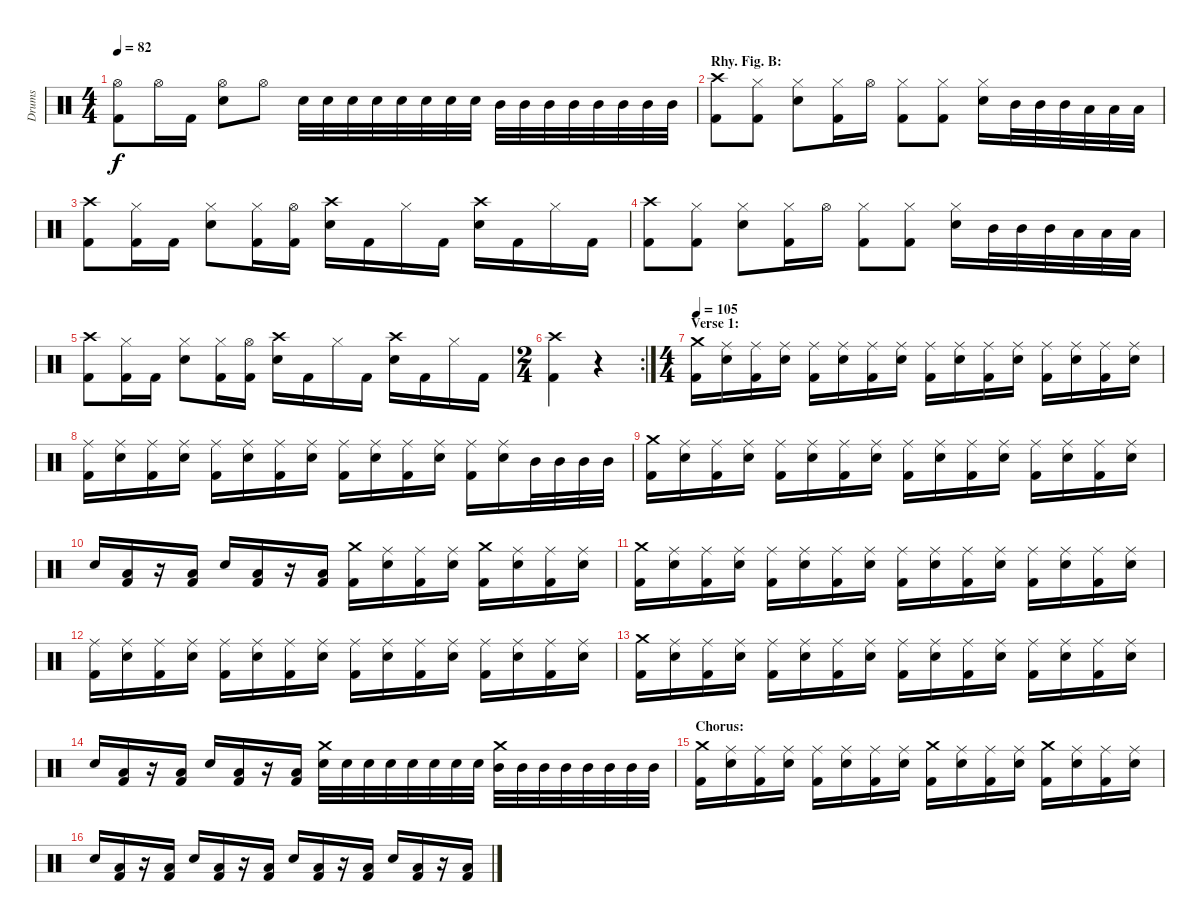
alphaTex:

\track ("Drums" "Drums") {instrument percussion}
\staff {score}
\articulation defaults
\ts (4 4)
\tempo 82
\clef neutral
\ks c
("Hi-Hat (open)" "Kick (hit) 2").8{dy f} "Hi-Hat (open)".16 "Kick (hit) 2".16 ("Hi-Hat (open)" "Electric Snare (hit)").8 "Hi-Hat (open)".8 "Electric Snare (hit)".32 "Electric Snare (hit)".32 "Electric Snare (hit)".32 "Electric Snare (hit)".32 "Electric Snare (hit)".32 "Electric Snare (hit)".32 "Electric Snare (hit)".32 "Electric Snare (hit)".32 "Mid Tom (hit)".32 "Mid Tom (hit)".32 "Mid Tom (hit)".32 "Mid Tom (hit)".32 "Mid Tom (hit)".32 "Mid Tom (hit)".32 "Mid Tom (hit)".32 "Mid Tom (hit)".32 |
\section ("" "Rhy. Fig. B:")
("Crash high (hit)" "Kick (hit) 2").8 ("Hi-Hat (closed)" "Kick (hit) 2").8 ("Hi-Hat (closed)" "Electric Snare (hit)").8 ("Hi-Hat (closed)" "Kick (hit) 2").16 "Hi-Hat (open)".16 ("Hi-Hat (closed)" "Kick (hit) 2").8 ("Hi-Hat (closed)" "Kick (hit) 2").8 ("Hi-Hat (closed)" "Electric Snare (hit)").16 "Mid Tom (hit)".32 "Mid Tom (hit)".32 "Mid Tom (hit)".32 "Low Tom (hit)".32 "Low Tom (hit)".32 "Low Tom (hit)".32 |
("Crash high (hit)" "Kick (hit) 2").8 ("Hi-Hat (closed)" "Kick (hit) 2").16 "Kick (hit) 2".16 ("Hi-Hat (closed)" "Electric Snare (hit)").8 ("Hi-Hat (closed)" "Kick (hit) 2").16 ("Hi-Hat (open)" "Kick (hit) 2").16 ("Crash high (hit)" "Electric Snare (hit)").16 "Kick (hit) 2".16 "Hi-Hat (closed)".16 "Kick (hit) 2".16 ("Crash high (hit)" "Electric Snare (hit)").16 "Kick (hit) 2".16 "Hi-Hat (closed)".16 "Kick (hit) 2".16 |
("Crash high (hit)" "Kick (hit) 2").8 ("Hi-Hat (closed)" "Kick (hit) 2").8 ("Hi-Hat (closed)" "Electric Snare (hit)").8 ("Hi-Hat (closed)" "Kick (hit) 2").16 "Hi-Hat (open)".16 ("Hi-Hat (closed)" "Kick (hit) 2").8 ("Hi-Hat (closed)" "Kick (hit) 2").8 ("Hi-Hat (closed)" "Electric Snare (hit)").16 "Mid Tom (hit)".32 "Mid Tom (hit)".32 "Mid Tom (hit)".32 "Low Tom (hit)".32 "Low Tom (hit)".32 "Low Tom (hit)".32 |
("Crash high (hit)" "Kick (hit) 2").8 ("Hi-Hat (closed)" "Kick (hit) 2").16 "Kick (hit) 2".16 ("Hi-Hat (closed)" "Electric Snare (hit)").8 ("Hi-Hat (closed)" "Kick (hit) 2").16 ("Hi-Hat (open)" "Kick (hit) 2").16 ("Crash high (hit)" "Electric Snare (hit)").16 "Kick (hit) 2".16 "Hi-Hat (closed)".16 "Kick (hit) 2".16 ("Crash high (hit)" "Electric Snare (hit)").16 "Kick (hit) 2".16 "Hi-Hat (closed)".16 "Kick (hit) 2".16 |
\rc 2
\ts (2 4)
("Crash high (hit)" "Kick (hit) 2").4 r.4 |
\ts (4 4)
\section ("" "Verse 1:")
\tempo 105
("Crash medium (hit)" "Kick (hit) 2").16 ("Ride (middle)" "Electric Snare (hit)").16 ("Ride (middle)" "Kick (hit) 2").16 ("Ride (middle)" "Electric Snare (hit)").16 ("Ride (middle)" "Kick (hit) 2").16 ("Ride (middle)" "Electric Snare (hit)").16 ("Ride (middle)" "Kick (hit) 2").16 ("Ride (middle)" "Electric Snare (hit)").16 ("Ride (middle)" "Kick (hit) 2").16 ("Ride (middle)" "Electric Snare (hit)").16 ("Ride (middle)" "Kick (hit) 2").16 ("Ride (middle)" "Electric Snare (hit)").16 ("Ride (middle)" "Kick (hit) 2").16 ("Ride (middle)" "Electric Snare (hit)").16 ("Ride (middle)" "Kick (hit) 2").16 ("Ride (middle)" "Electric Snare (hit)").16 |
("Ride (middle)" "Kick (hit) 2").16 ("Ride (middle)" "Electric Snare (hit)").16 ("Ride (middle)" "Kick (hit) 2").16 ("Ride (middle)" "Electric Snare (hit)").16 ("Ride (middle)" "Kick (hit) 2").16 ("Ride (middle)" "Electric Snare (hit)").16 ("Ride (middle)" "Kick (hit) 2").16 ("Ride (middle)" "Electric Snare (hit)").16 ("Ride (middle)" "Kick (hit) 2").16 ("Ride (middle)" "Electric Snare (hit)").16 ("Ride (middle)" "Kick (hit) 2").16 ("Ride (middle)" "Electric Snare (hit)").16 ("Ride (middle)" "Kick (hit) 2").16 ("Ride (middle)" "Electric Snare (hit)").16 "Mid Tom (hit)".32 "Mid Tom (hit)".32 "Mid Tom (hit)".32 "Mid Tom (hit)".32 |
("Crash medium (hit)" "Kick (hit) 2").16 ("Ride (middle)" "Electric Snare (hit)").16 ("Ride (middle)" "Kick (hit) 2").16 ("Ride (middle)" "Electric Snare (hit)").16 ("Ride (middle)" "Kick (hit) 2").16 ("Ride (middle)" "Electric Snare (hit)").16 ("Ride (middle)" "Kick (hit) 2").16 ("Ride (middle)" "Electric Snare (hit)").16 ("Ride (middle)" "Kick (hit) 2").16 ("Ride (middle)" "Electric Snare (hit)").16 ("Ride (middle)" "Kick (hit) 2").16 ("Ride (middle)" "Electric Snare (hit)").16 ("Ride (middle)" "Kick (hit) 2").16 ("Ride (middle)" "Electric Snare (hit)").16 ("Ride (middle)" "Kick (hit) 2").16 ("Ride (middle)" "Electric Snare (hit)").16 |
"Electric Snare (hit)".16 ("Low Floor Tom (hit)" "Kick (hit) 2").16 r.16 ("Low Floor Tom (hit)" "Kick (hit) 2").16 "Electric Snare (hit)".16 ("Low Floor Tom (hit)" "Kick (hit) 2").16 r.16 ("Low Floor Tom (hit)" "Kick (hit) 2").16 ("Crash medium (hit)" "Kick (hit) 2").16 ("Ride (middle)" "Electric Snare (hit)").16 ("Ride (middle)" "Kick (hit) 2").16 ("Ride (middle)" "Electric Snare (hit)").16 ("Crash medium (hit)" "Kick (hit) 2").16 ("Ride (middle)" "Electric Snare (hit)").16 ("Ride (middle)" "Kick (hit) 2").16 ("Ride (middle)" "Electric Snare (hit)").16 |
("Crash medium (hit)" "Kick (hit) 2").16 ("Ride (middle)" "Electric Snare (hit)").16 ("Ride (middle)" "Kick (hit) 2").16 ("Ride (middle)" "Electric Snare (hit)").16 ("Ride (middle)" "Kick (hit) 2").16 ("Ride (middle)" "Electric Snare (hit)").16 ("Ride (middle)" "Kick (hit) 2").16 ("Ride (middle)" "Electric Snare (hit)").16 ("Ride (middle)" "Kick (hit) 2").16 ("Ride (middle)" "Electric Snare (hit)").16 ("Ride (middle)" "Kick (hit) 2").16 ("Ride (middle)" "Electric Snare (hit)").16 ("Ride (middle)" "Kick (hit) 2").16 ("Ride (middle)" "Electric Snare (hit)").16 ("Ride (middle)" "Kick (hit) 2").16 ("Ride (middle)" "Electric Snare (hit)").16 |
("Ride (middle)" "Kick (hit) 2").16 ("Ride (middle)" "Electric Snare (hit)").16 ("Ride (middle)" "Kick (hit) 2").16 ("Ride (middle)" "Electric Snare (hit)").16 ("Ride (middle)" "Kick (hit) 2").16 ("Ride (middle)" "Electric Snare (hit)").16 ("Ride (middle)" "Kick (hit) 2").16 ("Ride (middle)" "Electric Snare (hit)").16 ("Ride (middle)" "Kick (hit) 2").16 ("Ride (middle)" "Electric Snare (hit)").16 ("Ride (middle)" "Kick (hit) 2").16 ("Ride (middle)" "Electric Snare (hit)").16 ("Ride (middle)" "Kick (hit) 2").16 ("Ride (middle)" "Electric Snare (hit)").16 ("Ride (middle)" "Kick (hit) 2").16 ("Ride (middle)" "Electric Snare (hit)").16 |
("Crash medium (hit)" "Kick (hit) 2").16 ("Ride (middle)" "Electric Snare (hit)").16 ("Ride (middle)" "Kick (hit) 2").16 ("Ride (middle)" "Electric Snare (hit)").16 ("Ride (middle)" "Kick (hit) 2").16 ("Ride (middle)" "Electric Snare (hit)").16 ("Ride (middle)" "Kick (hit) 2").16 ("Ride (middle)" "Electric Snare (hit)").16 ("Ride (middle)" "Kick (hit) 2").16 ("Ride (middle)" "Electric Snare (hit)").16 ("Ride (middle)" "Kick (hit) 2").16 ("Ride (middle)" "Electric Snare (hit)").16 ("Ride (middle)" "Kick (hit) 2").16 ("Ride (middle)" "Electric Snare (hit)").16 ("Ride (middle)" "Kick (hit) 2").16 ("Ride (middle)" "Electric Snare (hit)").16 |
"Electric Snare (hit)".16 ("Low Floor Tom (hit)" "Kick (hit) 2").16 r.16 ("Low Floor Tom (hit)" "Kick (hit) 2").16 "Electric Snare (hit)".16 ("Low Floor Tom (hit)" "Kick (hit) 2").16 r.16 ("Low Floor Tom (hit)" "Kick (hit) 2").16 ("Crash medium (hit)" "Electric Snare (hit)").32 "Electric Snare (hit)".32 "Electric Snare (hit)".32 "Electric Snare (hit)".32 "Electric Snare (hit)".32 "Electric Snare (hit)".32 "Electric Snare (hit)".32 "Electric Snare (hit)".32 ("Crash medium (hit)" "Mid Tom (hit)").32 "Mid Tom (hit)".32 "Mid Tom (hit)".32 "Mid Tom (hit)".32 "Mid Tom (hit)".32 "Mid Tom (hit)".32 "Mid Tom (hit)".32 "Mid Tom (hit)".32 |
\section ("" "Chorus:")
("Crash medium (hit)" "Kick (hit) 2").16 ("Ride (middle)" "Electric Snare (hit)").16 ("Ride (middle)" "Kick (hit) 2").16 ("Ride (middle)" "Electric Snare (hit)").16 ("Ride (middle)" "Kick (hit) 2").16 ("Ride (middle)" "Electric Snare (hit)").16 ("Ride (middle)" "Kick (hit) 2").16 ("Ride (middle)" "Electric Snare (hit)").16 ("Crash medium (hit)" "Kick (hit) 2").16 ("Ride (middle)" "Electric Snare (hit)").16 ("Ride (middle)" "Kick (hit) 2").16 ("Ride (middle)" "Electric Snare (hit)").16 ("Crash medium (hit)" "Kick (hit) 2").16 ("Ride (middle)" "Electric Snare (hit)").16 ("Ride (middle)" "Kick (hit) 2").16 ("Ride (middle)" "Electric Snare (hit)").16 |
"Electric Snare (hit)".16 ("Low Floor Tom (hit)" "Kick (hit) 2").16 r.16 ("Low Floor Tom (hit)" "Kick (hit) 2").16 "Electric Snare (hit)".16 ("Low Floor Tom (hit)" "Kick (hit) 2").16 r.16 ("Low Floor Tom (hit)" "Kick (hit) 2").16 "Electric Snare (hit)".16 ("Low Floor Tom (hit)" "Kick (hit) 2").16 r.16 ("Low Floor Tom (hit)" "Kick (hit) 2").16 "Electric Snare (hit)".16 ("Low Floor Tom (hit)" "Kick (hit) 2").16 r.16 ("Low Floor Tom (hit)" "Kick (hit) 2").16
